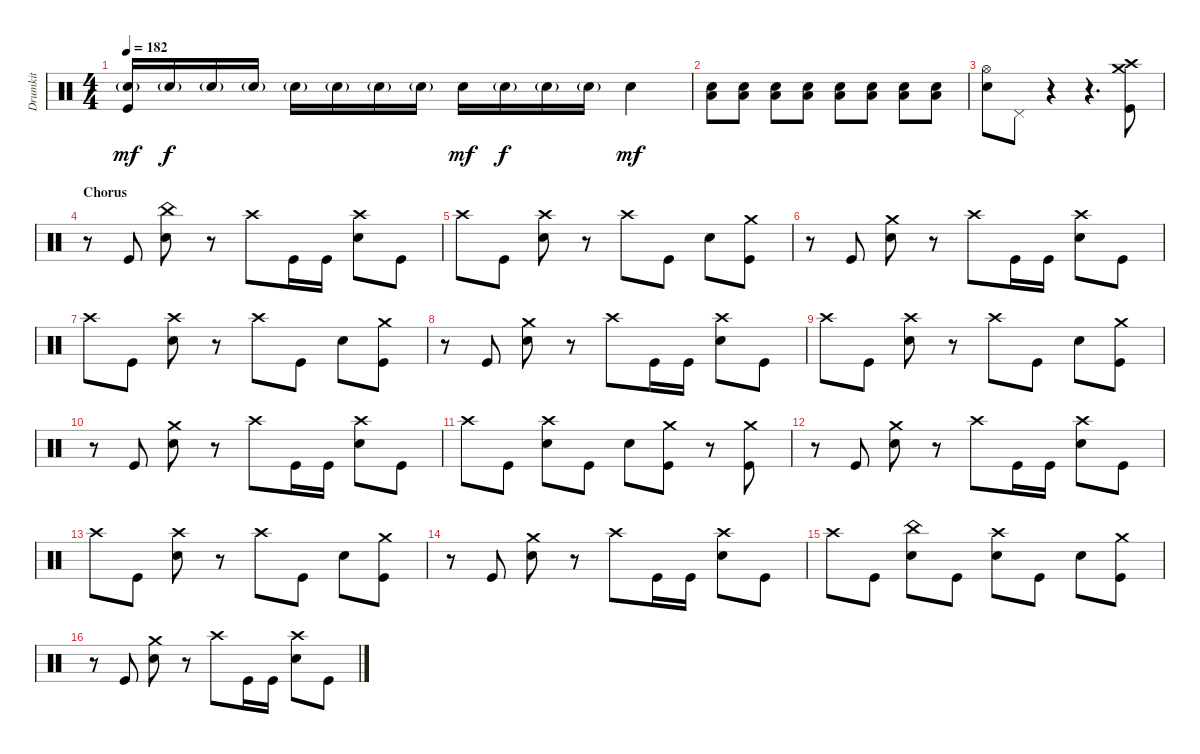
\track ("Drumkit" "Drumkit") {instrument percussion}
\staff {score}
\articulation defaults
\ts (4 4)
\tempo 182
\clef neutral
\ks c
("Snare (hit) 2"{g} "Kick (hit)").16{dy mf} "Snare (hit) 2"{g}.16{dy f} "Snare (hit) 2"{g}.16 "Snare (hit) 2"{g}.16 "Snare (hit) 2"{g}.16 "Snare (hit) 2"{g}.16 "Snare (hit) 2"{g}.16 "Snare (hit) 2"{g}.16 "Snare (hit) 2".16{dy mf} "Snare (hit) 2"{g}.16{dy f} "Snare (hit) 2"{g}.16 "Snare (hit) 2"{g}.16 "Snare (hit) 2".4{dy mf} |
("Snare (hit) 2" "Low Tom (hit)").8 ("Snare (hit) 2" "Low Tom (hit)").8 ("Snare (hit) 2" "Low Tom (hit)").8 ("Snare (hit) 2" "Low Tom (hit)").8 ("Snare (hit) 2" "Low Tom (hit)").8 ("Snare (hit) 2" "Low Tom (hit)").8 ("Snare (hit) 2" "Low Tom (hit)").8 ("Snare (hit) 2" "Low Tom (hit)").8 |
("Snare (hit) 2" "Hi-Hat (open)").8 "Pedal Hi-Hat (hit)".8 r.4 r.4{d} ("Kick (hit)" "Crash medium (hit)" "Crash high (hit)").8 |
\section ("" "Chorus")
r.8 "Kick (hit)".8 ("Snare (hit) 2" "China (hit)").8 r.8 "Crash high (hit)".8 "Kick (hit)".16 "Kick (hit)".16 ("Snare (hit) 2" "Crash high (hit)").8 "Kick (hit)".8 |
"Crash high (hit)".8 "Kick (hit)".8 ("Snare (hit) 2" "Crash high (hit)").8 r.8 "Crash high (hit)".8 "Kick (hit)".8 "Snare (hit) 2".8 ("Kick (hit)" "Crash medium (hit)").8 |
r.8 "Kick (hit)".8 ("Snare (hit) 2" "Crash medium (hit)").8 r.8 "Crash high (hit)".8 "Kick (hit)".16 "Kick (hit)".16 ("Snare (hit) 2" "Crash high (hit)").8 "Kick (hit)".8 |
"Crash high (hit)".8 "Kick (hit)".8 ("Snare (hit) 2" "Crash high (hit)").8 r.8 "Crash high (hit)".8 "Kick (hit)".8 "Snare (hit) 2".8 ("Kick (hit)" "Crash medium (hit)").8 |
r.8 "Kick (hit)".8 ("Snare (hit) 2" "Crash medium (hit)").8 r.8 "Crash high (hit)".8 "Kick (hit)".16 "Kick (hit)".16 ("Snare (hit) 2" "Crash high (hit)").8 "Kick (hit)".8 |
"Crash high (hit)".8 "Kick (hit)".8 ("Snare (hit) 2" "Crash high (hit)").8 r.8 "Crash high (hit)".8 "Kick (hit)".8 "Snare (hit) 2".8 ("Kick (hit)" "Crash medium (hit)").8 |
r.8 "Kick (hit)".8 ("Snare (hit) 2" "Crash medium (hit)").8 r.8 "Crash high (hit)".8 "Kick (hit)".16 "Kick (hit)".16 ("Snare (hit) 2" "Crash high (hit)").8 "Kick (hit)".8 |
"Crash high (hit)".8 "Kick (hit)".8 ("Snare (hit) 2" "Crash high (hit)").8 "Kick (hit)".8 "Snare (hit) 2".8 ("Kick (hit)" "Crash medium (hit)").8 r.8 ("Kick (hit)" "Crash medium (hit)").8 |
r.8 "Kick (hit)".8 ("Snare (hit) 2" "Crash medium (hit)").8 r.8 "Crash high (hit)".8 "Kick (hit)".16 "Kick (hit)".16 ("Snare (hit) 2" "Crash high (hit)").8 "Kick (hit)".8 |
"Crash high (hit)".8 "Kick (hit)".8 ("Snare (hit) 2" "Crash high (hit)").8 r.8 "Crash high (hit)".8 "Kick (hit)".8 "Snare (hit) 2".8 ("Kick (hit)" "Crash medium (hit)").8 |
r.8 "Kick (hit)".8 ("Snare (hit) 2" "Crash medium (hit)").8 r.8 "Crash high (hit)".8 "Kick (hit)".16 "Kick (hit)".16 ("Snare (hit) 2" "Crash high (hit)").8 "Kick (hit)".8 |
"Crash high (hit)".8 "Kick (hit)".8 ("Snare (hit) 2" "China (hit)").8 "Kick (hit)".8 ("Snare (hit) 2" "Crash high (hit)").8 "Kick (hit)".8 "Snare (hit) 2".8 ("Kick (hit)" "Crash medium (hit)").8 |
r.8 "Kick (hit)".8 ("Snare (hit) 2" "Crash medium (hit)").8 r.8 "Crash high (hit)".8 "Kick (hit)".16 "Kick (hit)".16 ("Snare (hit) 2" "Crash high (hit)").8 "Kick (hit)".8
